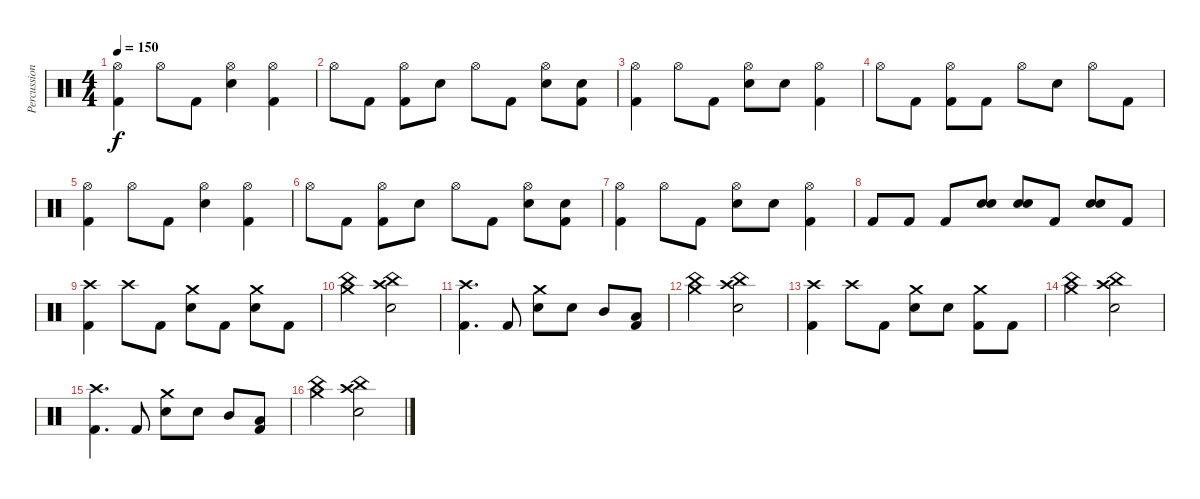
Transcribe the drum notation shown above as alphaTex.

\track ("Percussion" "Percussion") {instrument percussion}
\staff {score}
\articulation defaults
\ts (4 4)
\tempo 150
\clef neutral
\ks c
("Hi-Hat (open)" "Kick (hit) 2").4{dy f} "Hi-Hat (open)".8 "Kick (hit) 2".8 ("Hi-Hat (open)" "Electric Snare (hit)").4 ("Hi-Hat (open)" "Kick (hit) 2").4 |
"Hi-Hat (open)".8 "Kick (hit) 2".8 ("Hi-Hat (open)" "Kick (hit) 2").8 "Electric Snare (hit)".8 "Hi-Hat (open)".8 "Kick (hit) 2".8 ("Hi-Hat (open)" "Electric Snare (hit)").8 ("Electric Snare (hit)" "Kick (hit) 2").8 |
("Hi-Hat (open)" "Kick (hit) 2").4 "Hi-Hat (open)".8 "Kick (hit) 2".8 ("Hi-Hat (open)" "Electric Snare (hit)").8 "Electric Snare (hit)".8 ("Hi-Hat (open)" "Kick (hit) 2").4 |
"Hi-Hat (open)".8 "Kick (hit) 2".8 ("Hi-Hat (open)" "Kick (hit) 2").8 "Kick (hit) 2".8 "Hi-Hat (open)".8 "Electric Snare (hit)".8 "Hi-Hat (open)".8 "Kick (hit) 2".8 |
("Hi-Hat (open)" "Kick (hit) 2").4 "Hi-Hat (open)".8 "Kick (hit) 2".8 ("Hi-Hat (open)" "Electric Snare (hit)").4 ("Hi-Hat (open)" "Kick (hit) 2").4 |
"Hi-Hat (open)".8 "Kick (hit) 2".8 ("Hi-Hat (open)" "Kick (hit) 2").8 "Electric Snare (hit)".8 "Hi-Hat (open)".8 "Kick (hit) 2".8 ("Hi-Hat (open)" "Electric Snare (hit)").8 ("Electric Snare (hit)" "Kick (hit) 2").8 |
("Hi-Hat (open)" "Kick (hit) 2").4 "Hi-Hat (open)".8 "Kick (hit) 2".8 ("Hi-Hat (open)" "Electric Snare (hit)").8 "Electric Snare (hit)".8 ("Hi-Hat (open)" "Kick (hit) 2").4 |
"Kick (hit) 2".8 "Kick (hit) 2".8 "Kick (hit) 2".8 ("Electric Snare (hit)" "Electric Snare (hit)").8 ("Electric Snare (hit)" "Electric Snare (hit)").8 "Kick (hit) 2".8 ("Electric Snare (hit)" "Electric Snare (hit)").8 "Kick (hit) 2".8 |
("Crash high (hit)" "Kick (hit) 2").4 "Crash high (hit)".8 "Kick (hit) 2".8 ("Crash medium (hit)" "Electric Snare (hit)").8 "Kick (hit) 2".8 ("Crash medium (hit)" "Electric Snare (hit)").8 "Kick (hit) 2".8 |
("Crash medium (hit)" "China (hit)").2 ("Crash high (hit)" "China (hit)" "Electric Snare (hit)").2 |
("Crash high (hit)" "Kick (hit) 2").4{d} "Kick (hit) 2".8 ("Crash medium (hit)" "Electric Snare (hit)").8 "Electric Snare (hit)".8 "Mid Tom (hit)".8 ("Low Tom (hit)" "Kick (hit) 2").8 |
("Crash medium (hit)" "China (hit)").2 ("Crash high (hit)" "China (hit)" "Electric Snare (hit)").2 |
("Crash high (hit)" "Kick (hit) 2").4 "Crash high (hit)".8 "Kick (hit) 2".8 ("Crash medium (hit)" "Electric Snare (hit)").8 "Electric Snare (hit)".8 ("Crash medium (hit)" "Kick (hit) 2").8 "Kick (hit) 2".8 |
("Crash medium (hit)" "China (hit)").2 ("Crash high (hit)" "China (hit)" "Electric Snare (hit)").2 |
("Crash high (hit)" "Kick (hit) 2").4{d} "Kick (hit) 2".8 ("Crash medium (hit)" "Electric Snare (hit)").8 "Electric Snare (hit)".8 "Mid Tom (hit)".8 ("Low Tom (hit)" "Kick (hit) 2").8 |
("Crash medium (hit)" "China (hit)").2 ("Crash high (hit)" "China (hit)" "Electric Snare (hit)").2
